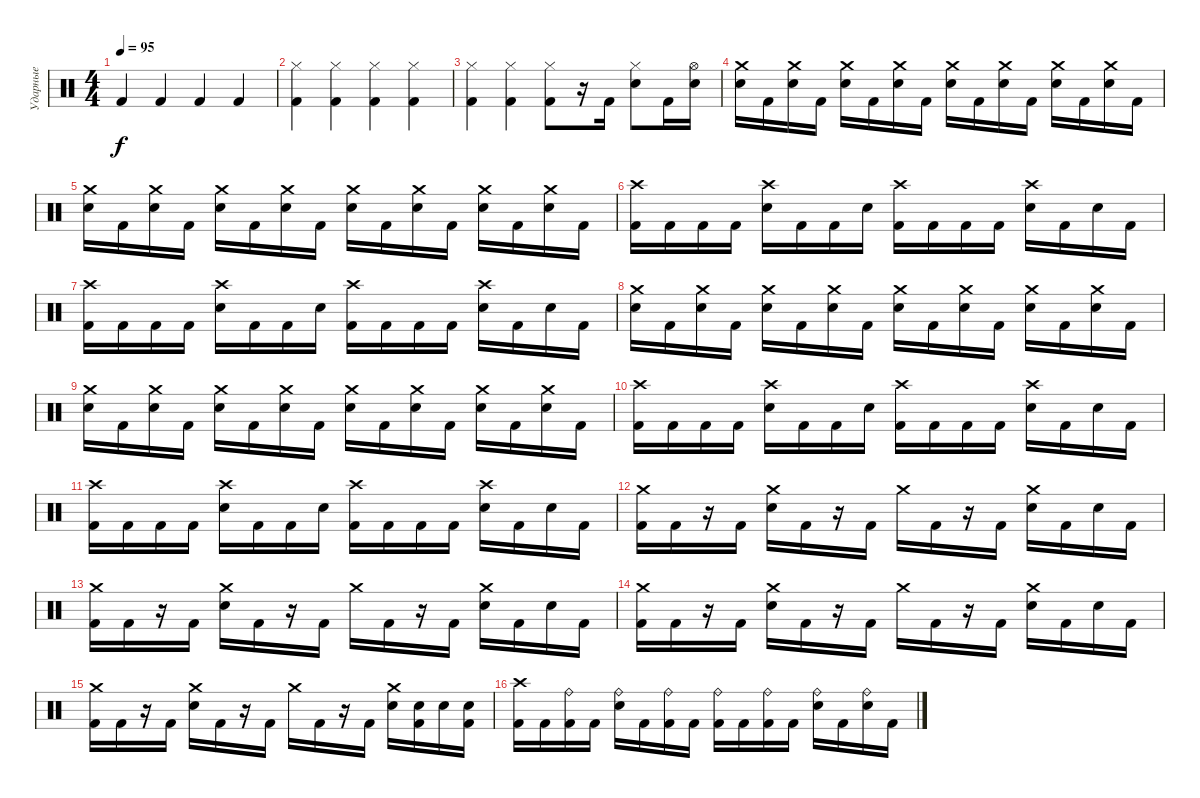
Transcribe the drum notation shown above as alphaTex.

\track ("Ударные" "Ударные") {instrument percussion}
\staff {score}
\articulation defaults
\ts (4 4)
\tempo 95
\clef neutral
\ks c "Kick (hit) 2".4{dy f} "Kick (hit) 2".4 "Kick (hit) 2".4 "Kick (hit) 2".4
|
("Hi-Hat (closed)" "Kick (hit) 2").4 ("Hi-Hat (closed)" "Kick (hit) 2").4 ("Hi-Hat (closed)" "Kick (hit) 2").4 ("Hi-Hat (closed)" "Kick (hit) 2").4 |
("Hi-Hat (closed)" "Kick (hit) 2").4 ("Hi-Hat (closed)" "Kick (hit) 2").4 ("Hi-Hat (closed)" "Kick (hit) 2").8 r.16 "Kick (hit) 2".16 ("Hi-Hat (closed)" "Electric Snare (hit)").8 "Kick (hit) 2".16 ("Hi-Hat (open)" "Electric Snare (hit)").16 |
("Crash medium (hit)" "Electric Snare (hit)").16 "Kick (hit) 2".16 ("Crash medium (hit)" "Electric Snare (hit)").16 "Kick (hit) 2".16 ("Crash medium (hit)" "Electric Snare (hit)").16 "Kick (hit) 2".16 ("Crash medium (hit)" "Electric Snare (hit)").16 "Kick (hit) 2".16 ("Crash medium (hit)" "Electric Snare (hit)").16 "Kick (hit) 2".16 ("Crash medium (hit)" "Electric Snare (hit)").16 "Kick (hit) 2".16 ("Crash medium (hit)" "Electric Snare (hit)").16 "Kick (hit) 2".16 ("Crash medium (hit)" "Electric Snare (hit)").16 "Kick (hit) 2".16 |
("Crash medium (hit)" "Electric Snare (hit)").16 "Kick (hit) 2".16 ("Crash medium (hit)" "Electric Snare (hit)").16 "Kick (hit) 2".16 ("Crash medium (hit)" "Electric Snare (hit)").16 "Kick (hit) 2".16 ("Crash medium (hit)" "Electric Snare (hit)").16 "Kick (hit) 2".16 ("Crash medium (hit)" "Electric Snare (hit)").16 "Kick (hit) 2".16 ("Crash medium (hit)" "Electric Snare (hit)").16 "Kick (hit) 2".16 ("Crash medium (hit)" "Electric Snare (hit)").16 "Kick (hit) 2".16 ("Crash medium (hit)" "Electric Snare (hit)").16 "Kick (hit) 2".16 |
("Crash high (hit)" "Kick (hit) 2").16 "Kick (hit) 2".16 "Kick (hit) 2".16 "Kick (hit) 2".16 ("Crash high (hit)" "Electric Snare (hit)").16 "Kick (hit) 2".16 "Kick (hit) 2".16 "Electric Snare (hit)".16 ("Crash high (hit)" "Kick (hit) 2").16 "Kick (hit) 2".16 "Kick (hit) 2".16 "Kick (hit) 2".16 ("Crash high (hit)" "Electric Snare (hit)").16 "Kick (hit) 2".16 "Electric Snare (hit)".16 "Kick (hit) 2".16 |
("Crash high (hit)" "Kick (hit) 2").16 "Kick (hit) 2".16 "Kick (hit) 2".16 "Kick (hit) 2".16 ("Crash high (hit)" "Electric Snare (hit)").16 "Kick (hit) 2".16 "Kick (hit) 2".16 "Electric Snare (hit)".16 ("Crash high (hit)" "Kick (hit) 2").16 "Kick (hit) 2".16 "Kick (hit) 2".16 "Kick (hit) 2".16 ("Crash high (hit)" "Electric Snare (hit)").16 "Kick (hit) 2".16 "Electric Snare (hit)".16 "Kick (hit) 2".16 |
("Crash medium (hit)" "Electric Snare (hit)").16 "Kick (hit) 2".16 ("Crash medium (hit)" "Electric Snare (hit)").16 "Kick (hit) 2".16 ("Crash medium (hit)" "Electric Snare (hit)").16 "Kick (hit) 2".16 ("Crash medium (hit)" "Electric Snare (hit)").16 "Kick (hit) 2".16 ("Crash medium (hit)" "Electric Snare (hit)").16 "Kick (hit) 2".16 ("Crash medium (hit)" "Electric Snare (hit)").16 "Kick (hit) 2".16 ("Crash medium (hit)" "Electric Snare (hit)").16 "Kick (hit) 2".16 ("Crash medium (hit)" "Electric Snare (hit)").16 "Kick (hit) 2".16 |
("Crash medium (hit)" "Electric Snare (hit)").16 "Kick (hit) 2".16 ("Crash medium (hit)" "Electric Snare (hit)").16 "Kick (hit) 2".16 ("Crash medium (hit)" "Electric Snare (hit)").16 "Kick (hit) 2".16 ("Crash medium (hit)" "Electric Snare (hit)").16 "Kick (hit) 2".16 ("Crash medium (hit)" "Electric Snare (hit)").16 "Kick (hit) 2".16 ("Crash medium (hit)" "Electric Snare (hit)").16 "Kick (hit) 2".16 ("Crash medium (hit)" "Electric Snare (hit)").16 "Kick (hit) 2".16 ("Crash medium (hit)" "Electric Snare (hit)").16 "Kick (hit) 2".16 |
("Crash high (hit)" "Kick (hit) 2").16 "Kick (hit) 2".16 "Kick (hit) 2".16 "Kick (hit) 2".16 ("Crash high (hit)" "Electric Snare (hit)").16 "Kick (hit) 2".16 "Kick (hit) 2".16 "Electric Snare (hit)".16 ("Crash high (hit)" "Kick (hit) 2").16 "Kick (hit) 2".16 "Kick (hit) 2".16 "Kick (hit) 2".16 ("Crash high (hit)" "Electric Snare (hit)").16 "Kick (hit) 2".16 "Electric Snare (hit)".16 "Kick (hit) 2".16 |
("Crash high (hit)" "Kick (hit) 2").16 "Kick (hit) 2".16 "Kick (hit) 2".16 "Kick (hit) 2".16 ("Crash high (hit)" "Electric Snare (hit)").16 "Kick (hit) 2".16 "Kick (hit) 2".16 "Electric Snare (hit)".16 ("Crash high (hit)" "Kick (hit) 2").16 "Kick (hit) 2".16 "Kick (hit) 2".16 "Kick (hit) 2".16 ("Crash high (hit)" "Electric Snare (hit)").16 "Kick (hit) 2".16 "Electric Snare (hit)".16 "Kick (hit) 2".16 |
("Crash medium (hit)" "Kick (hit) 2").16 "Kick (hit) 2".16 r.16 "Kick (hit) 2".16 ("Crash medium (hit)" "Electric Snare (hit)").16 "Kick (hit) 2".16 r.16 "Kick (hit) 2".16 "Crash medium (hit)".16 "Kick (hit) 2".16 r.16 "Kick (hit) 2".16 ("Crash medium (hit)" "Electric Snare (hit)").16 "Kick (hit) 2".16 "Electric Snare (hit)".16 "Kick (hit) 2".16 |
("Crash medium (hit)" "Kick (hit) 2").16 "Kick (hit) 2".16 r.16 "Kick (hit) 2".16 ("Crash medium (hit)" "Electric Snare (hit)").16 "Kick (hit) 2".16 r.16 "Kick (hit) 2".16 "Crash medium (hit)".16 "Kick (hit) 2".16 r.16 "Kick (hit) 2".16 ("Crash medium (hit)" "Electric Snare (hit)").16 "Kick (hit) 2".16 "Electric Snare (hit)".16 "Kick (hit) 2".16 |
("Crash medium (hit)" "Kick (hit) 2").16 "Kick (hit) 2".16 r.16 "Kick (hit) 2".16 ("Crash medium (hit)" "Electric Snare (hit)").16 "Kick (hit) 2".16 r.16 "Kick (hit) 2".16 "Crash medium (hit)".16 "Kick (hit) 2".16 r.16 "Kick (hit) 2".16 ("Crash medium (hit)" "Electric Snare (hit)").16 "Kick (hit) 2".16 "Electric Snare (hit)".16 "Kick (hit) 2".16 |
("Crash medium (hit)" "Kick (hit) 2").16 "Kick (hit) 2".16 r.16 "Kick (hit) 2".16 ("Crash medium (hit)" "Electric Snare (hit)").16 "Kick (hit) 2".16 r.16 "Kick (hit) 2".16 "Crash medium (hit)".16 "Kick (hit) 2".16 r.16 "Kick (hit) 2".16 ("Crash medium (hit)" "Electric Snare (hit)").16 ("Electric Snare (hit)" "Kick (hit) 2").16 "Electric Snare (hit)".16 ("Electric Snare (hit)" "Kick (hit) 2").16 |
("Crash high (hit)" "Kick (hit) 2").16 "Kick (hit) 2".16 ("Ride (bell)" "Kick (hit) 2").16 "Kick (hit) 2".16 ("Ride (bell)" "Electric Snare (hit)").16 "Kick (hit) 2".16 ("Ride (bell)" "Kick (hit) 2").16 "Kick (hit) 2".16 ("Ride (bell)" "Kick (hit) 2").16 "Kick (hit) 2".16 ("Ride (bell)" "Kick (hit) 2").16 "Kick (hit) 2".16 ("Ride (bell)" "Electric Snare (hit)").16 "Kick (hit) 2".16 ("Ride (bell)" "Electric Snare (hit)").16 "Kick (hit) 2".16
